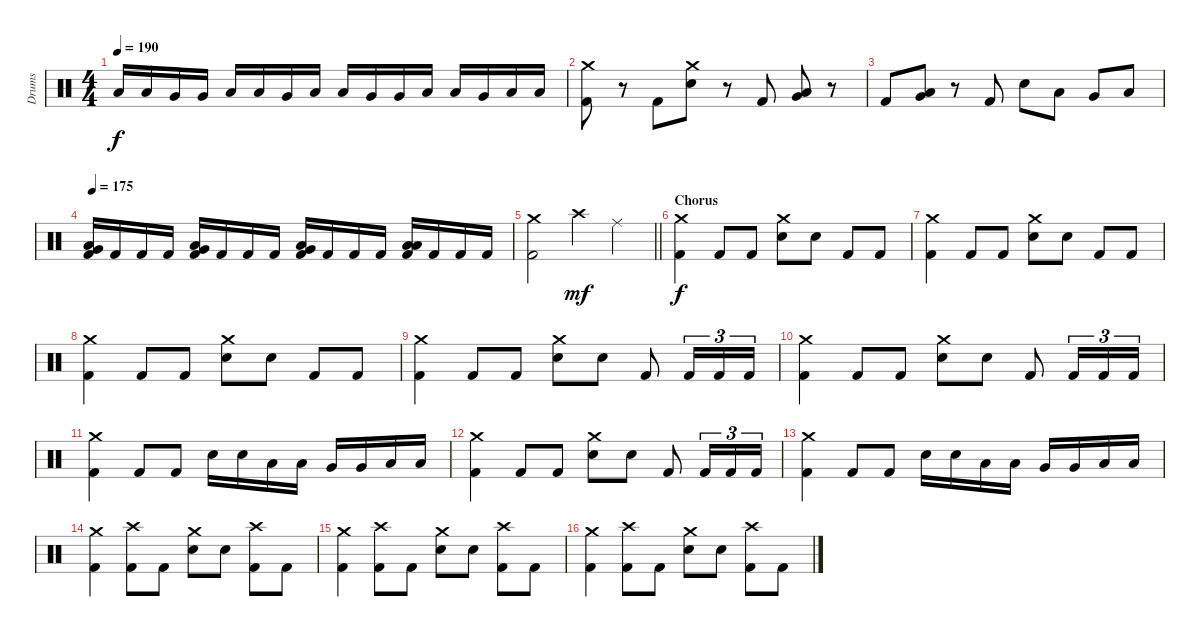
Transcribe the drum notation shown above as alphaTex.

\track ("Drums" "Drums") {instrument percussion}
\staff {score}
\articulation defaults
\ts (4 4)
\tempo 190
\clef neutral
\ks c "Low Tom (hit)".16{dy f} "Low Tom (hit)".16 "Very Low Tom (hit)".16 "Very Low Tom (hit)".16 "Low Floor Tom (hit)".16 "Low Tom (hit)".16 "Very Low Tom (hit)".16 "Low Floor Tom (hit)".16 "Low Tom (hit)".16 "Very Low Tom (hit)".16 "Very Low Tom (hit)".16 "Low Floor Tom (hit)".16 "Low Floor Tom (hit)".16 "Very Low Tom (hit)".16 "Low Tom (hit)".16 "Low Floor Tom (hit)".16
|
("Crash medium (hit)" "Kick (hit) 2").8 r.8 "Kick (hit) 2".8 ("Crash medium (hit)" "Electric Snare (hit)").8 r.8 "Kick (hit) 2".8 ("Very Low Tom (hit)" "Low Tom (hit)").8 r.8 |
"Kick (hit) 2".8 ("Very Low Tom (hit)" "Low Floor Tom (hit)").8 r.8 "Kick (hit) 2".8 "Electric Snare (hit)".8 "Low Tom (hit)".8 "Very Low Tom (hit)".8 "Low Floor Tom (hit)".8 |
\tempo 175
("Low Tom (hit)" "Very Low Tom (hit)" "Kick (hit) 2").16 "Kick (hit) 2".16 "Kick (hit) 2".16 "Kick (hit) 2".16 ("Very Low Tom (hit)" "Low Floor Tom (hit)" "Kick (hit) 2").16 "Kick (hit) 2".16 "Kick (hit) 2".16 "Kick (hit) 2".16 ("Low Tom (hit)" "Very Low Tom (hit)" "Kick (hit) 2").16 "Kick (hit) 2".16 "Kick (hit) 2".16 "Kick (hit) 2".16 ("Low Tom (hit)" "Low Floor Tom (hit)" "Kick (hit) 2").16 "Kick (hit) 2".16 "Kick (hit) 2".16 "Kick (hit) 2".16 |
\barLineRight lightlight
("Crash medium (hit)" "Kick (hit) 2").2 "Crash high (hit)".4{dy mf} "Ride (middle)".4 |
\section ("" "Chorus")
("Crash medium (hit)" "Kick (hit) 2").4{dy f} "Kick (hit) 2".8 "Kick (hit) 2".8 ("Crash medium (hit)" "Electric Snare (hit)").8 "Electric Snare (hit)".8 "Kick (hit) 2".8 "Kick (hit) 2".8 |
("Crash medium (hit)" "Kick (hit) 2").4 "Kick (hit) 2".8 "Kick (hit) 2".8 ("Crash medium (hit)" "Electric Snare (hit)").8 "Electric Snare (hit)".8 "Kick (hit) 2".8 "Kick (hit) 2".8 |
("Crash medium (hit)" "Kick (hit) 2").4 "Kick (hit) 2".8 "Kick (hit) 2".8 ("Crash medium (hit)" "Electric Snare (hit)").8 "Electric Snare (hit)".8 "Kick (hit) 2".8 "Kick (hit) 2".8 |
("Crash medium (hit)" "Kick (hit) 2").4 "Kick (hit) 2".8 "Kick (hit) 2".8 ("Crash medium (hit)" "Electric Snare (hit)").8 "Electric Snare (hit)".8 "Kick (hit) 2".8 "Kick (hit) 2".16{tu (3 2)} "Kick (hit) 2".16{tu (3 2)} "Kick (hit) 2".16{tu (3 2)} |
("Crash medium (hit)" "Kick (hit) 2").4 "Kick (hit) 2".8 "Kick (hit) 2".8 ("Crash medium (hit)" "Electric Snare (hit)").8 "Electric Snare (hit)".8 "Kick (hit) 2".8 "Kick (hit) 2".16{tu (3 2)} "Kick (hit) 2".16{tu (3 2)} "Kick (hit) 2".16{tu (3 2)} |
("Crash medium (hit)" "Kick (hit) 2").4 "Kick (hit) 2".8 "Kick (hit) 2".8 "Electric Snare (hit)".16 "Electric Snare (hit)".16 "Low Tom (hit)".16 "Low Tom (hit)".16 "Very Low Tom (hit)".16 "Very Low Tom (hit)".16 "Low Floor Tom (hit)".16 "Low Floor Tom (hit)".16 |
("Crash medium (hit)" "Kick (hit) 2").4 "Kick (hit) 2".8 "Kick (hit) 2".8 ("Crash medium (hit)" "Electric Snare (hit)").8 "Electric Snare (hit)".8 "Kick (hit) 2".8 "Kick (hit) 2".16{tu (3 2)} "Kick (hit) 2".16{tu (3 2)} "Kick (hit) 2".16{tu (3 2)} |
("Crash medium (hit)" "Kick (hit) 2").4 "Kick (hit) 2".8 "Kick (hit) 2".8 "Electric Snare (hit)".16 "Electric Snare (hit)".16 "Low Tom (hit)".16 "Low Tom (hit)".16 "Very Low Tom (hit)".16 "Very Low Tom (hit)".16 "Low Floor Tom (hit)".16 "Low Floor Tom (hit)".16 |
("Crash medium (hit)" "Kick (hit) 2").4 ("Crash high (hit)" "Kick (hit) 2").8 "Kick (hit) 2".8 ("Crash medium (hit)" "Electric Snare (hit)").8 "Electric Snare (hit)".8 ("Crash high (hit)" "Kick (hit) 2").8 "Kick (hit) 2".8 |
("Crash medium (hit)" "Kick (hit) 2").4 ("Crash high (hit)" "Kick (hit) 2").8 "Kick (hit) 2".8 ("Crash medium (hit)" "Electric Snare (hit)").8 "Electric Snare (hit)".8 ("Crash high (hit)" "Kick (hit) 2").8 "Kick (hit) 2".8 |
("Crash medium (hit)" "Kick (hit) 2").4 ("Crash high (hit)" "Kick (hit) 2").8 "Kick (hit) 2".8 ("Crash medium (hit)" "Electric Snare (hit)").8 "Electric Snare (hit)".8 ("Crash high (hit)" "Kick (hit) 2").8 "Kick (hit) 2".8
